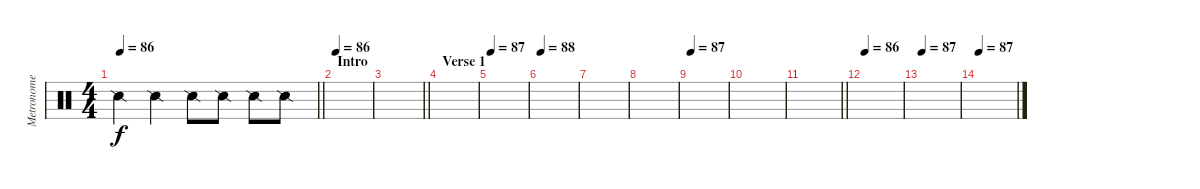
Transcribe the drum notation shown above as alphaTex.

\track ("Metronome" "Metronome") {instrument percussion}
\staff {score}
\articulation defaults
\ts (4 4)
\tempo 86
\clef neutral
\barLineRight lightlight
\ks c "Snare (side stick) 2".4{dy f} "Snare (side stick) 2".4 "Snare (side stick) 2".8 "Snare (side stick) 2".8 "Snare (side stick) 2".8 "Snare (side stick) 2".8
|
\section ("" "Intro")
\tempo 86
|
\barLineRight lightlight
|
\section ("" "Verse 1")
|
\tempo 87
|
\tempo 88
|
|
|
\tempo 87
|
|
\barLineRight lightlight
|
\tempo 86
|
\tempo 87
|
\tempo 87
